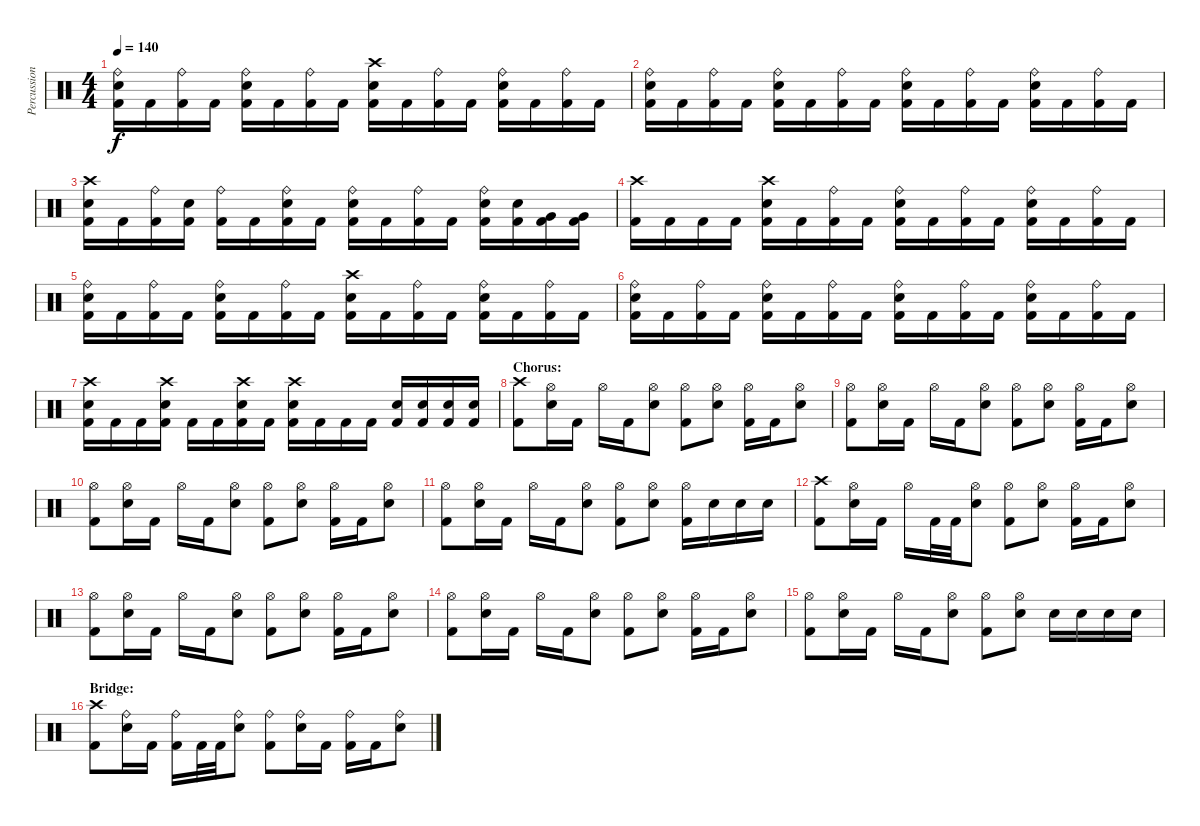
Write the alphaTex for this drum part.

\track ("Percussion" "Percussion") {instrument percussion}
\staff {score}
\articulation defaults
\ts (4 4)
\tempo 140
\clef neutral
\ks c
("Ride (bell)" "Electric Snare (hit)" "Kick (hit) 2").16{dy f} "Kick (hit) 2".16 ("Ride (bell)" "Kick (hit) 2").16 "Kick (hit) 2".16 ("Ride (bell)" "Electric Snare (hit)" "Kick (hit) 2").16 "Kick (hit) 2".16 ("Ride (bell)" "Kick (hit) 2").16 "Kick (hit) 2".16 ("Crash high (hit)" "Electric Snare (hit)" "Kick (hit) 2").16 "Kick (hit) 2".16 ("Ride (bell)" "Kick (hit) 2").16 "Kick (hit) 2".16 ("Ride (bell)" "Electric Snare (hit)" "Kick (hit) 2").16 "Kick (hit) 2".16 ("Ride (bell)" "Kick (hit) 2").16 "Kick (hit) 2".16 |
("Ride (bell)" "Electric Snare (hit)" "Kick (hit) 2").16 "Kick (hit) 2".16 ("Ride (bell)" "Kick (hit) 2").16 "Kick (hit) 2".16 ("Ride (bell)" "Electric Snare (hit)" "Kick (hit) 2").16 "Kick (hit) 2".16 ("Ride (bell)" "Kick (hit) 2").16 "Kick (hit) 2".16 ("Ride (bell)" "Electric Snare (hit)" "Kick (hit) 2").16 "Kick (hit) 2".16 ("Ride (bell)" "Kick (hit) 2").16 "Kick (hit) 2".16 ("Ride (bell)" "Electric Snare (hit)" "Kick (hit) 2").16 "Kick (hit) 2".16 ("Ride (bell)" "Kick (hit) 2").16 "Kick (hit) 2".16 |
("Crash high (hit)" "Electric Snare (hit)" "Kick (hit) 2").16 "Kick (hit) 2".16 ("Ride (bell)" "Kick (hit) 2").16 ("Electric Snare (hit)" "Kick (hit) 2").16 ("Ride (bell)" "Kick (hit) 2").16 "Kick (hit) 2".16 ("Ride (bell)" "Electric Snare (hit)" "Kick (hit) 2").16 "Kick (hit) 2".16 ("Ride (bell)" "Electric Snare (hit)" "Kick (hit) 2").16 "Kick (hit) 2".16 ("Ride (bell)" "Kick (hit) 2").16 "Kick (hit) 2".16 ("Ride (bell)" "Electric Snare (hit)" "Kick (hit) 2").16 ("Electric Snare (hit)" "Kick (hit) 2").16 ("Very Low Tom (hit)" "Kick (hit) 2").16 ("Very Low Tom (hit)" "Kick (hit) 2").16 |
("Crash high (hit)" "Kick (hit) 2").16 "Kick (hit) 2".16 "Kick (hit) 2".16 "Kick (hit) 2".16 ("Crash high (hit)" "Electric Snare (hit)" "Kick (hit) 2").16 "Kick (hit) 2".16 ("Ride (bell)" "Kick (hit) 2").16 "Kick (hit) 2".16 ("Ride (bell)" "Electric Snare (hit)" "Kick (hit) 2").16 "Kick (hit) 2".16 ("Ride (bell)" "Kick (hit) 2").16 "Kick (hit) 2".16 ("Ride (bell)" "Electric Snare (hit)" "Kick (hit) 2").16 "Kick (hit) 2".16 ("Ride (bell)" "Kick (hit) 2").16 "Kick (hit) 2".16 |
("Ride (bell)" "Electric Snare (hit)" "Kick (hit) 2").16 "Kick (hit) 2".16 ("Ride (bell)" "Kick (hit) 2").16 "Kick (hit) 2".16 ("Ride (bell)" "Electric Snare (hit)" "Kick (hit) 2").16 "Kick (hit) 2".16 ("Ride (bell)" "Kick (hit) 2").16 "Kick (hit) 2".16 ("Crash high (hit)" "Electric Snare (hit)" "Kick (hit) 2").16 "Kick (hit) 2".16 ("Ride (bell)" "Kick (hit) 2").16 "Kick (hit) 2".16 ("Ride (bell)" "Electric Snare (hit)" "Kick (hit) 2").16 "Kick (hit) 2".16 ("Ride (bell)" "Kick (hit) 2").16 "Kick (hit) 2".16 |
("Ride (bell)" "Electric Snare (hit)" "Kick (hit) 2").16 "Kick (hit) 2".16 ("Ride (bell)" "Kick (hit) 2").16 "Kick (hit) 2".16 ("Ride (bell)" "Electric Snare (hit)" "Kick (hit) 2").16 "Kick (hit) 2".16 ("Ride (bell)" "Kick (hit) 2").16 "Kick (hit) 2".16 ("Ride (bell)" "Electric Snare (hit)" "Kick (hit) 2").16 "Kick (hit) 2".16 ("Ride (bell)" "Kick (hit) 2").16 "Kick (hit) 2".16 ("Ride (bell)" "Electric Snare (hit)" "Kick (hit) 2").16 "Kick (hit) 2".16 ("Ride (bell)" "Kick (hit) 2").16 "Kick (hit) 2".16 |
("Crash high (hit)" "Electric Snare (hit)" "Kick (hit) 2").16 "Kick (hit) 2".16 "Kick (hit) 2".16 ("Crash high (hit)" "Electric Snare (hit)" "Kick (hit) 2").16 "Kick (hit) 2".16 "Kick (hit) 2".16 ("Crash high (hit)" "Electric Snare (hit)" "Kick (hit) 2").16 "Kick (hit) 2".16 ("Crash high (hit)" "Electric Snare (hit)" "Kick (hit) 2").16 "Kick (hit) 2".16 "Kick (hit) 2".16 "Kick (hit) 2".16 ("Electric Snare (hit)" "Kick (hit) 2").16 ("Electric Snare (hit)" "Kick (hit) 2").16 ("Electric Snare (hit)" "Kick (hit) 2").16 ("Electric Snare (hit)" "Kick (hit) 2").16 |
\section ("" "Chorus:")
("Crash high (hit)" "Kick (hit) 2").8 ("Hi-Hat (open)" "Electric Snare (hit)").16 "Kick (hit) 2".16 "Hi-Hat (open)".16 "Kick (hit) 2".16 ("Hi-Hat (open)" "Electric Snare (hit)").8 ("Hi-Hat (open)" "Kick (hit) 2").8 ("Hi-Hat (open)" "Electric Snare (hit)").8 ("Hi-Hat (open)" "Kick (hit) 2").16 "Kick (hit) 2".16 ("Hi-Hat (open)" "Electric Snare (hit)").8 |
("Hi-Hat (open)" "Kick (hit) 2").8 ("Hi-Hat (open)" "Electric Snare (hit)").16 "Kick (hit) 2".16 "Hi-Hat (open)".16 "Kick (hit) 2".16 ("Hi-Hat (open)" "Electric Snare (hit)").8 ("Hi-Hat (open)" "Kick (hit) 2").8 ("Hi-Hat (open)" "Electric Snare (hit)").8 ("Hi-Hat (open)" "Kick (hit) 2").16 "Kick (hit) 2".16 ("Hi-Hat (open)" "Electric Snare (hit)").8 |
("Hi-Hat (open)" "Kick (hit) 2").8 ("Hi-Hat (open)" "Electric Snare (hit)").16 "Kick (hit) 2".16 "Hi-Hat (open)".16 "Kick (hit) 2".16 ("Hi-Hat (open)" "Electric Snare (hit)").8 ("Hi-Hat (open)" "Kick (hit) 2").8 ("Hi-Hat (open)" "Electric Snare (hit)").8 ("Hi-Hat (open)" "Kick (hit) 2").16 "Kick (hit) 2".16 ("Hi-Hat (open)" "Electric Snare (hit)").8 |
("Hi-Hat (open)" "Kick (hit) 2").8 ("Hi-Hat (open)" "Electric Snare (hit)").16 "Kick (hit) 2".16 "Hi-Hat (open)".16 "Kick (hit) 2".16 ("Hi-Hat (open)" "Electric Snare (hit)").8 ("Hi-Hat (open)" "Kick (hit) 2").8 ("Hi-Hat (open)" "Electric Snare (hit)").8 ("Hi-Hat (open)" "Kick (hit) 2").16 "Electric Snare (hit)".16 "Electric Snare (hit)".16 "Electric Snare (hit)".16 |
("Crash high (hit)" "Kick (hit) 2").8 ("Hi-Hat (open)" "Electric Snare (hit)").16 "Kick (hit) 2".16 "Hi-Hat (open)".16 "Kick (hit) 2".32 "Kick (hit) 2".32 ("Hi-Hat (open)" "Electric Snare (hit)").8 ("Hi-Hat (open)" "Kick (hit) 2").8 ("Hi-Hat (open)" "Electric Snare (hit)").8 ("Hi-Hat (open)" "Kick (hit) 2").16 "Kick (hit) 2".16 ("Hi-Hat (open)" "Electric Snare (hit)").8 |
("Hi-Hat (open)" "Kick (hit) 2").8 ("Hi-Hat (open)" "Electric Snare (hit)").16 "Kick (hit) 2".16 "Hi-Hat (open)".16 "Kick (hit) 2".16 ("Hi-Hat (open)" "Electric Snare (hit)").8 ("Hi-Hat (open)" "Kick (hit) 2").8 ("Hi-Hat (open)" "Electric Snare (hit)").8 ("Hi-Hat (open)" "Kick (hit) 2").16 "Kick (hit) 2".16 ("Hi-Hat (open)" "Electric Snare (hit)").8 |
("Hi-Hat (open)" "Kick (hit) 2").8 ("Hi-Hat (open)" "Electric Snare (hit)").16 "Kick (hit) 2".16 "Hi-Hat (open)".16 "Kick (hit) 2".16 ("Hi-Hat (open)" "Electric Snare (hit)").8 ("Hi-Hat (open)" "Kick (hit) 2").8 ("Hi-Hat (open)" "Electric Snare (hit)").8 ("Hi-Hat (open)" "Kick (hit) 2").16 "Kick (hit) 2".16 ("Hi-Hat (open)" "Electric Snare (hit)").8 |
("Hi-Hat (open)" "Kick (hit) 2").8 ("Hi-Hat (open)" "Electric Snare (hit)").16 "Kick (hit) 2".16 "Hi-Hat (open)".16 "Kick (hit) 2".16 ("Hi-Hat (open)" "Electric Snare (hit)").8 ("Hi-Hat (open)" "Kick (hit) 2").8 ("Hi-Hat (open)" "Electric Snare (hit)").8 "Electric Snare (hit)".16 "Electric Snare (hit)".16 "Electric Snare (hit)".16 "Electric Snare (hit)".16 |
\section ("" "Bridge:")
("Crash high (hit)" "Kick (hit) 2").8 ("Ride (bell)" "Electric Snare (hit)").16 "Kick (hit) 2".16 ("Ride (bell)" "Kick (hit) 2").16 "Kick (hit) 2".32 "Kick (hit) 2".32 ("Ride (bell)" "Electric Snare (hit)").8 ("Ride (bell)" "Kick (hit) 2").8 ("Ride (bell)" "Electric Snare (hit)").16 "Kick (hit) 2".16 ("Ride (bell)" "Kick (hit) 2").16 "Kick (hit) 2".16 ("Ride (bell)" "Electric Snare (hit)").8
